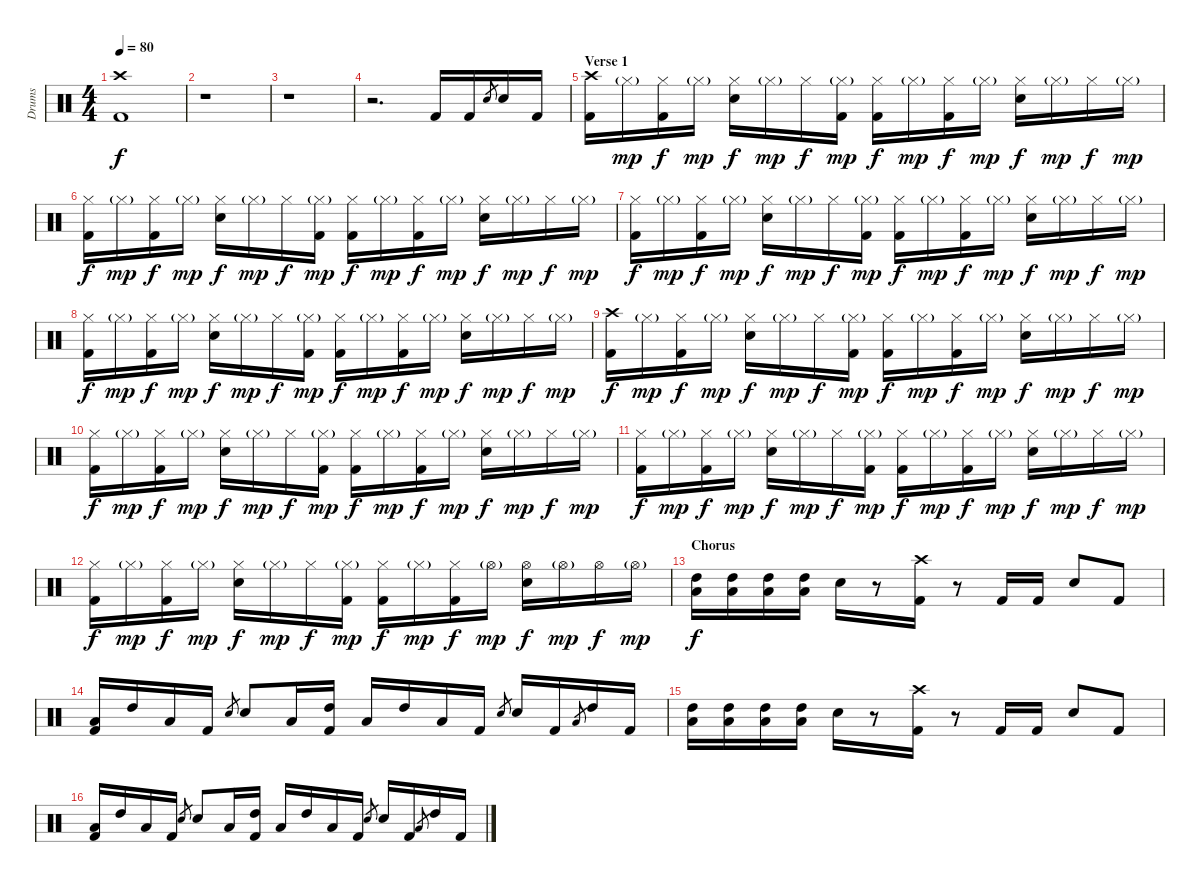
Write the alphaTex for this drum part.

\track ("Drums" "Drums") {instrument percussion}
\staff {score}
\articulation defaults
\ts (4 4)
\tempo 80
\clef neutral
\ks c
("Crash high (hit)" "Kick (hit) 2").1{dy f} |
r.1 |
r.1 |
r.2{d} "Kick (hit) 2".16 "Kick (hit) 2".16 "Snare (hit) 2".8{gr} "Snare (hit) 2".16 "Kick (hit) 2".16 |
\section ("" "Verse 1")
("Crash high (hit)" "Kick (hit) 2").16 "Hi-Hat (closed)"{g}.16{dy mp} ("Hi-Hat (closed)" "Kick (hit) 2").16{dy f} "Hi-Hat (closed)"{g}.16{dy mp} ("Hi-Hat (closed)" "Snare (hit) 2").16{dy f} "Hi-Hat (closed)"{g}.16{dy mp} "Hi-Hat (closed)".16{dy f} ("Hi-Hat (closed)"{g} "Kick (hit) 2").16{dy mp} ("Hi-Hat (closed)" "Kick (hit) 2").16{dy f} "Hi-Hat (closed)"{g}.16{dy mp} ("Hi-Hat (closed)" "Kick (hit) 2").16{dy f} "Hi-Hat (closed)"{g}.16{dy mp} ("Hi-Hat (closed)" "Snare (hit) 2").16{dy f} "Hi-Hat (closed)"{g}.16{dy mp} "Hi-Hat (closed)".16{dy f} "Hi-Hat (closed)"{g}.16{dy mp} |
("Hi-Hat (closed)" "Kick (hit) 2").16{dy f} "Hi-Hat (closed)"{g}.16{dy mp} ("Hi-Hat (closed)" "Kick (hit) 2").16{dy f} "Hi-Hat (closed)"{g}.16{dy mp} ("Hi-Hat (closed)" "Snare (hit) 2").16{dy f} "Hi-Hat (closed)"{g}.16{dy mp} "Hi-Hat (closed)".16{dy f} ("Hi-Hat (closed)"{g} "Kick (hit) 2").16{dy mp} ("Hi-Hat (closed)" "Kick (hit) 2").16{dy f} "Hi-Hat (closed)"{g}.16{dy mp} ("Hi-Hat (closed)" "Kick (hit) 2").16{dy f} "Hi-Hat (closed)"{g}.16{dy mp} ("Hi-Hat (closed)" "Snare (hit) 2").16{dy f} "Hi-Hat (closed)"{g}.16{dy mp} "Hi-Hat (closed)".16{dy f} "Hi-Hat (closed)"{g}.16{dy mp} |
("Hi-Hat (closed)" "Kick (hit) 2").16{dy f} "Hi-Hat (closed)"{g}.16{dy mp} ("Hi-Hat (closed)" "Kick (hit) 2").16{dy f} "Hi-Hat (closed)"{g}.16{dy mp} ("Hi-Hat (closed)" "Snare (hit) 2").16{dy f} "Hi-Hat (closed)"{g}.16{dy mp} "Hi-Hat (closed)".16{dy f} ("Hi-Hat (closed)"{g} "Kick (hit) 2").16{dy mp} ("Hi-Hat (closed)" "Kick (hit) 2").16{dy f} "Hi-Hat (closed)"{g}.16{dy mp} ("Hi-Hat (closed)" "Kick (hit) 2").16{dy f} "Hi-Hat (closed)"{g}.16{dy mp} ("Hi-Hat (closed)" "Snare (hit) 2").16{dy f} "Hi-Hat (closed)"{g}.16{dy mp} "Hi-Hat (closed)".16{dy f} "Hi-Hat (closed)"{g}.16{dy mp} |
("Hi-Hat (closed)" "Kick (hit) 2").16{dy f} "Hi-Hat (closed)"{g}.16{dy mp} ("Hi-Hat (closed)" "Kick (hit) 2").16{dy f} "Hi-Hat (closed)"{g}.16{dy mp} ("Hi-Hat (closed)" "Snare (hit) 2").16{dy f} "Hi-Hat (closed)"{g}.16{dy mp} "Hi-Hat (closed)".16{dy f} ("Hi-Hat (closed)"{g} "Kick (hit) 2").16{dy mp} ("Hi-Hat (closed)" "Kick (hit) 2").16{dy f} "Hi-Hat (closed)"{g}.16{dy mp} ("Hi-Hat (closed)" "Kick (hit) 2").16{dy f} "Hi-Hat (closed)"{g}.16{dy mp} ("Hi-Hat (closed)" "Snare (hit) 2").16{dy f} "Hi-Hat (closed)"{g}.16{dy mp} "Hi-Hat (closed)".16{dy f} "Hi-Hat (closed)"{g}.16{dy mp} |
("Crash high (hit)" "Kick (hit) 2").16{dy f} "Hi-Hat (closed)"{g}.16{dy mp} ("Hi-Hat (closed)" "Kick (hit) 2").16{dy f} "Hi-Hat (closed)"{g}.16{dy mp} ("Hi-Hat (closed)" "Snare (hit) 2").16{dy f} "Hi-Hat (closed)"{g}.16{dy mp} "Hi-Hat (closed)".16{dy f} ("Hi-Hat (closed)"{g} "Kick (hit) 2").16{dy mp} ("Hi-Hat (closed)" "Kick (hit) 2").16{dy f} "Hi-Hat (closed)"{g}.16{dy mp} ("Hi-Hat (closed)" "Kick (hit) 2").16{dy f} "Hi-Hat (closed)"{g}.16{dy mp} ("Hi-Hat (closed)" "Snare (hit) 2").16{dy f} "Hi-Hat (closed)"{g}.16{dy mp} "Hi-Hat (closed)".16{dy f} "Hi-Hat (closed)"{g}.16{dy mp} |
("Hi-Hat (closed)" "Kick (hit) 2").16{dy f} "Hi-Hat (closed)"{g}.16{dy mp} ("Hi-Hat (closed)" "Kick (hit) 2").16{dy f} "Hi-Hat (closed)"{g}.16{dy mp} ("Hi-Hat (closed)" "Snare (hit) 2").16{dy f} "Hi-Hat (closed)"{g}.16{dy mp} "Hi-Hat (closed)".16{dy f} ("Hi-Hat (closed)"{g} "Kick (hit) 2").16{dy mp} ("Hi-Hat (closed)" "Kick (hit) 2").16{dy f} "Hi-Hat (closed)"{g}.16{dy mp} ("Hi-Hat (closed)" "Kick (hit) 2").16{dy f} "Hi-Hat (closed)"{g}.16{dy mp} ("Hi-Hat (closed)" "Snare (hit) 2").16{dy f} "Hi-Hat (closed)"{g}.16{dy mp} "Hi-Hat (closed)".16{dy f} "Hi-Hat (closed)"{g}.16{dy mp} |
("Hi-Hat (closed)" "Kick (hit) 2").16{dy f} "Hi-Hat (closed)"{g}.16{dy mp} ("Hi-Hat (closed)" "Kick (hit) 2").16{dy f} "Hi-Hat (closed)"{g}.16{dy mp} ("Hi-Hat (closed)" "Snare (hit) 2").16{dy f} "Hi-Hat (closed)"{g}.16{dy mp} "Hi-Hat (closed)".16{dy f} ("Hi-Hat (closed)"{g} "Kick (hit) 2").16{dy mp} ("Hi-Hat (closed)" "Kick (hit) 2").16{dy f} "Hi-Hat (closed)"{g}.16{dy mp} ("Hi-Hat (closed)" "Kick (hit) 2").16{dy f} "Hi-Hat (closed)"{g}.16{dy mp} ("Hi-Hat (closed)" "Snare (hit) 2").16{dy f} "Hi-Hat (closed)"{g}.16{dy mp} "Hi-Hat (closed)".16{dy f} "Hi-Hat (closed)"{g}.16{dy mp} |
("Hi-Hat (closed)" "Kick (hit) 2").16{dy f} "Hi-Hat (closed)"{g}.16{dy mp} ("Hi-Hat (closed)" "Kick (hit) 2").16{dy f} "Hi-Hat (closed)"{g}.16{dy mp} ("Hi-Hat (closed)" "Snare (hit) 2").16{dy f} "Hi-Hat (closed)"{g}.16{dy mp} "Hi-Hat (closed)".16{dy f} ("Hi-Hat (closed)"{g} "Kick (hit) 2").16{dy mp} ("Hi-Hat (closed)" "Kick (hit) 2").16{dy f} "Hi-Hat (closed)"{g}.16{dy mp} ("Hi-Hat (closed)" "Kick (hit) 2").16{dy f} "Hi-Hat (open)"{g}.16{dy mp} ("Hi-Hat (open)" "Snare (hit) 2").16{dy f} "Hi-Hat (open)"{g}.16{dy mp} "Hi-Hat (open)".16{dy f} "Hi-Hat (open)"{g}.16{dy mp} |
\section ("" "Chorus")
("High Tom (hit)" "Low Floor Tom (hit)").16{dy f} ("High Tom (hit)" "Low Floor Tom (hit)").16 ("High Tom (hit)" "Low Floor Tom (hit)").16 ("High Tom (hit)" "Low Floor Tom (hit)").16 "Snare (hit) 2".16 r.8 ("Crash high (hit)" "Kick (hit) 2").16 r.8 "Kick (hit) 2".16 "Kick (hit) 2".16 "Snare (hit) 2".8 "Kick (hit) 2".8 |
("Low Floor Tom (hit)" "Kick (hit) 2").16 "High Tom (hit)".16 "Low Floor Tom (hit)".16 "Kick (hit) 2".16 "Snare (hit) 2".8{gr} "Snare (hit) 2".8 "Low Floor Tom (hit)".16 ("High Tom (hit)" "Kick (hit) 2").16 "Low Floor Tom (hit)".16 "High Tom (hit)".16 "Low Floor Tom (hit)".16 "Kick (hit) 2".16 "Snare (hit) 2".8{gr} "Snare (hit) 2".16 "Kick (hit) 2".16 "Low Floor Tom (hit)".8{gr} "High Tom (hit)".16 "Kick (hit) 2".16 |
("High Tom (hit)" "Low Floor Tom (hit)").16 ("High Tom (hit)" "Low Floor Tom (hit)").16 ("High Tom (hit)" "Low Floor Tom (hit)").16 ("High Tom (hit)" "Low Floor Tom (hit)").16 "Snare (hit) 2".16 r.8 ("Crash high (hit)" "Kick (hit) 2").16 r.8 "Kick (hit) 2".16 "Kick (hit) 2".16 "Snare (hit) 2".8 "Kick (hit) 2".8 |
("Low Floor Tom (hit)" "Kick (hit) 2").16 "High Tom (hit)".16 "Low Floor Tom (hit)".16 "Kick (hit) 2".16 "Snare (hit) 2".8{gr} "Snare (hit) 2".8 "Low Floor Tom (hit)".16 ("High Tom (hit)" "Kick (hit) 2").16 "Low Floor Tom (hit)".16 "High Tom (hit)".16 "Low Floor Tom (hit)".16 "Kick (hit) 2".16 "Snare (hit) 2".8{gr} "Snare (hit) 2".16 "Kick (hit) 2".16 "Low Floor Tom (hit)".8{gr} "High Tom (hit)".16 "Kick (hit) 2".16
